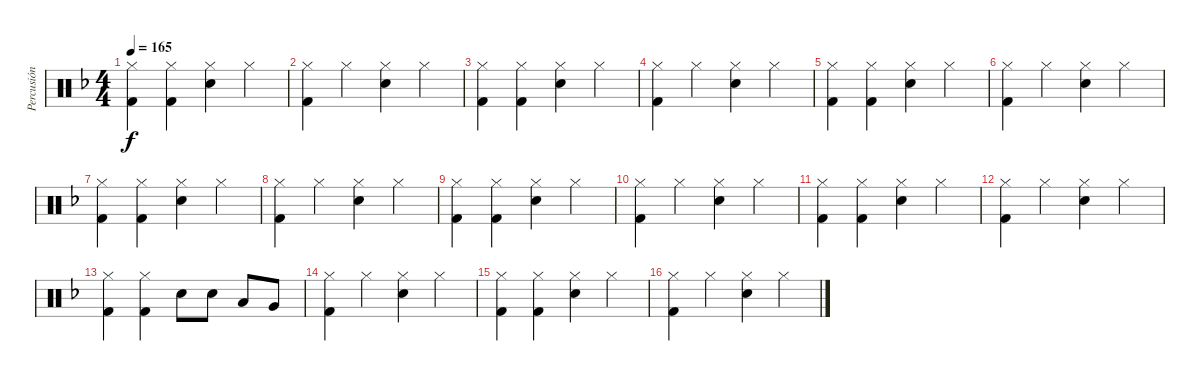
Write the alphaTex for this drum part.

\track ("Percusión" "Percusión") {instrument percussion}
\staff {score}
\articulation defaults
\ts (4 4)
\tempo 165
\clef neutral
\ks f
("Hi-Hat (closed)" "Kick (hit) 2").4{dy f} ("Hi-Hat (closed)" "Kick (hit) 2").4 ("Hi-Hat (closed)" "Electric Snare (hit)").4 "Hi-Hat (closed)".4 |
("Hi-Hat (closed)" "Kick (hit) 2").4 "Hi-Hat (closed)".4 ("Hi-Hat (closed)" "Electric Snare (hit)").4 "Hi-Hat (closed)".4 |
("Hi-Hat (closed)" "Kick (hit) 2").4 ("Hi-Hat (closed)" "Kick (hit) 2").4 ("Hi-Hat (closed)" "Electric Snare (hit)").4 "Hi-Hat (closed)".4 |
("Hi-Hat (closed)" "Kick (hit) 2").4 "Hi-Hat (closed)".4 ("Hi-Hat (closed)" "Electric Snare (hit)").4 "Hi-Hat (closed)".4 |
("Hi-Hat (closed)" "Kick (hit) 2").4 ("Hi-Hat (closed)" "Kick (hit) 2").4 ("Hi-Hat (closed)" "Electric Snare (hit)").4 "Hi-Hat (closed)".4 |
("Hi-Hat (closed)" "Kick (hit) 2").4 "Hi-Hat (closed)".4 ("Hi-Hat (closed)" "Electric Snare (hit)").4 "Hi-Hat (closed)".4 |
("Hi-Hat (closed)" "Kick (hit) 2").4 ("Hi-Hat (closed)" "Kick (hit) 2").4 ("Hi-Hat (closed)" "Electric Snare (hit)").4 "Hi-Hat (closed)".4 |
("Hi-Hat (closed)" "Kick (hit) 2").4 "Hi-Hat (closed)".4 ("Hi-Hat (closed)" "Electric Snare (hit)").4 "Hi-Hat (closed)".4 |
("Hi-Hat (closed)" "Kick (hit) 2").4 ("Hi-Hat (closed)" "Kick (hit) 2").4 ("Hi-Hat (closed)" "Electric Snare (hit)").4 "Hi-Hat (closed)".4 |
("Hi-Hat (closed)" "Kick (hit) 2").4 "Hi-Hat (closed)".4 ("Hi-Hat (closed)" "Electric Snare (hit)").4 "Hi-Hat (closed)".4 |
("Hi-Hat (closed)" "Kick (hit) 2").4 ("Hi-Hat (closed)" "Kick (hit) 2").4 ("Hi-Hat (closed)" "Electric Snare (hit)").4 "Hi-Hat (closed)".4 |
("Hi-Hat (closed)" "Kick (hit) 2").4 "Hi-Hat (closed)".4 ("Hi-Hat (closed)" "Electric Snare (hit)").4 "Hi-Hat (closed)".4 |
("Hi-Hat (closed)" "Kick (hit) 2").4 ("Hi-Hat (closed)" "Kick (hit) 2").4 "Electric Snare (hit)".8 "Electric Snare (hit)".8 "Low Tom (hit)".8 "Very Low Tom (hit)".8 |
("Hi-Hat (closed)" "Kick (hit) 2").4 "Hi-Hat (closed)".4 ("Hi-Hat (closed)" "Electric Snare (hit)").4 "Hi-Hat (closed)".4 |
("Hi-Hat (closed)" "Kick (hit) 2").4 ("Hi-Hat (closed)" "Kick (hit) 2").4 ("Hi-Hat (closed)" "Electric Snare (hit)").4 "Hi-Hat (closed)".4 |
("Hi-Hat (closed)" "Kick (hit) 2").4 "Hi-Hat (closed)".4 ("Hi-Hat (closed)" "Electric Snare (hit)").4 "Hi-Hat (closed)".4
